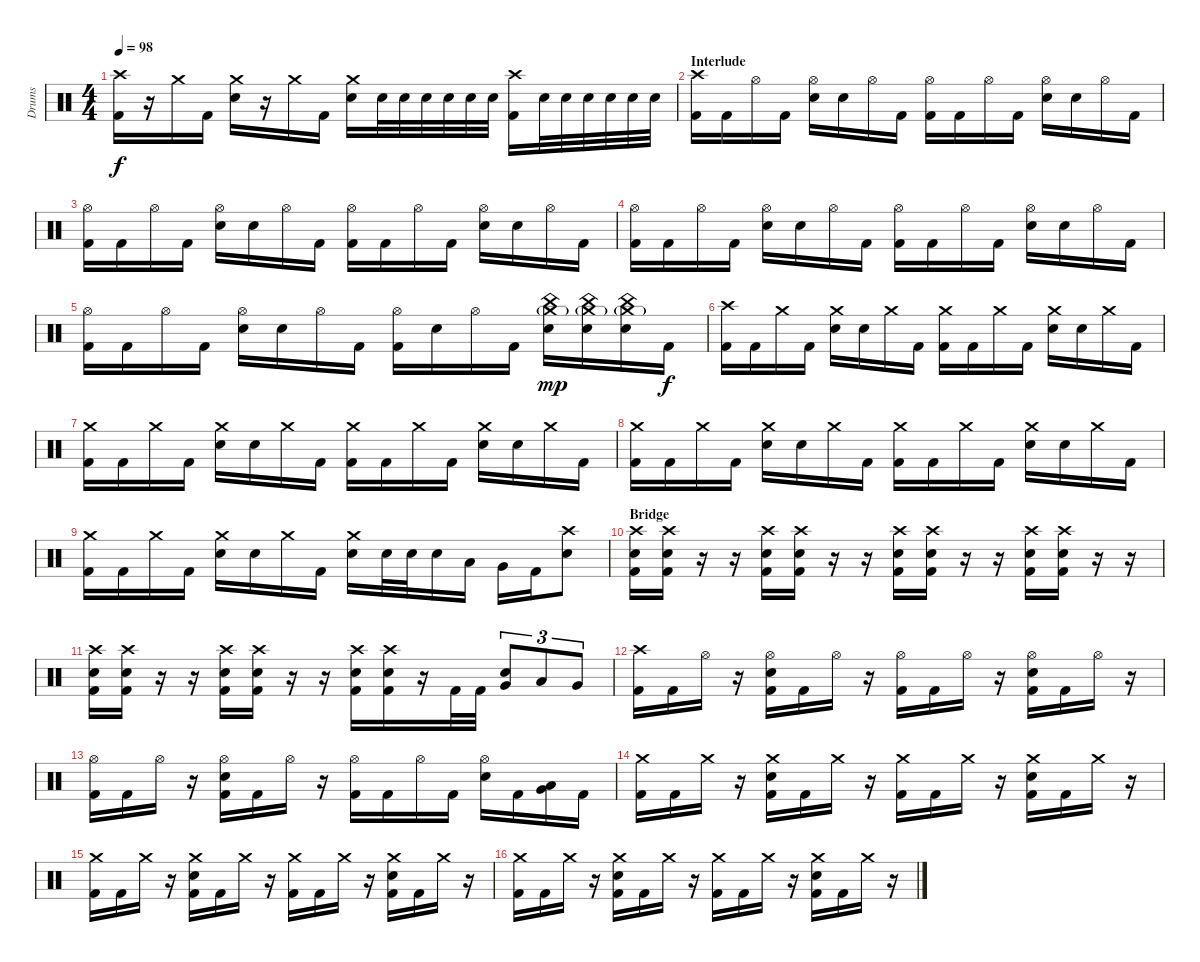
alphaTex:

\track ("Drums" "Drums") {instrument percussion}
\staff {score}
\articulation defaults
\ts (4 4)
\tempo 98
\clef neutral
\ks c
("Crash high (hit)" "Kick (hit) 2").16{dy f} r.16 "Crash medium (hit)".16 "Kick (hit) 2".16 ("Crash medium (hit)" "Snare (hit) 2").16 r.16 "Crash medium (hit)".16 "Kick (hit) 2".16 ("Crash medium (hit)" "Snare (hit) 2").16 "Snare (hit) 2".32 "Snare (hit) 2".32 "Snare (hit) 2".32 "Snare (hit) 2".32 "Snare (hit) 2".32 "Snare (hit) 2".32 ("Crash high (hit)" "Kick (hit) 2").16 "Snare (hit) 2".32 "Snare (hit) 2".32 "Snare (hit) 2".32 "Snare (hit) 2".32 "Snare (hit) 2".32 "Snare (hit) 2".32 |
\section ("" "Interlude")
("Crash high (hit)" "Kick (hit) 2").16 "Kick (hit) 2".16 "Hi-Hat (open)".16 "Kick (hit) 2".16 ("Hi-Hat (open)" "Snare (hit) 2").16 "Snare (hit) 2".16 "Hi-Hat (open)".16 "Kick (hit) 2".16 ("Hi-Hat (open)" "Kick (hit) 2").16 "Kick (hit) 2".16 "Hi-Hat (open)".16 "Kick (hit) 2".16 ("Hi-Hat (open)" "Snare (hit) 2").16 "Snare (hit) 2".16 "Hi-Hat (open)".16 "Kick (hit) 2".16 |
("Hi-Hat (open)" "Kick (hit) 2").16 "Kick (hit) 2".16 "Hi-Hat (open)".16 "Kick (hit) 2".16 ("Hi-Hat (open)" "Snare (hit) 2").16 "Snare (hit) 2".16 "Hi-Hat (open)".16 "Kick (hit) 2".16 ("Hi-Hat (open)" "Kick (hit) 2").16 "Kick (hit) 2".16 "Hi-Hat (open)".16 "Kick (hit) 2".16 ("Hi-Hat (open)" "Snare (hit) 2").16 "Snare (hit) 2".16 "Hi-Hat (open)".16 "Kick (hit) 2".16 |
("Hi-Hat (open)" "Kick (hit) 2").16 "Kick (hit) 2".16 "Hi-Hat (open)".16 "Kick (hit) 2".16 ("Hi-Hat (open)" "Snare (hit) 2").16 "Snare (hit) 2".16 "Hi-Hat (open)".16 "Kick (hit) 2".16 ("Hi-Hat (open)" "Kick (hit) 2").16 "Kick (hit) 2".16 "Hi-Hat (open)".16 "Kick (hit) 2".16 ("Hi-Hat (open)" "Snare (hit) 2").16 "Snare (hit) 2".16 "Hi-Hat (open)".16 "Kick (hit) 2".16 |
("Hi-Hat (open)" "Kick (hit) 2").16 "Kick (hit) 2".16 "Hi-Hat (open)".16 "Kick (hit) 2".16 ("Hi-Hat (open)" "Snare (hit) 2").16 "Snare (hit) 2".16 "Hi-Hat (open)".16 "Kick (hit) 2".16 ("Hi-Hat (open)" "Kick (hit) 2").16 "Snare (hit) 2".16 "Hi-Hat (open)".16 "Kick (hit) 2".16 ("Crash medium (hit)"{g} "China (hit)" "Snare (hit) 2").16{dy mp} ("Crash medium (hit)"{g} "China (hit)" "Snare (hit) 2").16 ("Crash medium (hit)"{g} "China (hit)" "Snare (hit) 2").16 "Kick (hit) 2".16{dy f} |
("Crash high (hit)" "Kick (hit) 2").16 "Kick (hit) 2".16 "Crash medium (hit)".16 "Kick (hit) 2".16 ("Crash medium (hit)" "Snare (hit) 2").16 "Snare (hit) 2".16 "Crash medium (hit)".16 "Kick (hit) 2".16 ("Crash medium (hit)" "Kick (hit) 2").16 "Kick (hit) 2".16 "Crash medium (hit)".16 "Kick (hit) 2".16 ("Crash medium (hit)" "Snare (hit) 2").16 "Snare (hit) 2".16 "Crash medium (hit)".16 "Kick (hit) 2".16 |
("Crash medium (hit)" "Kick (hit) 2").16 "Kick (hit) 2".16 "Crash medium (hit)".16 "Kick (hit) 2".16 ("Crash medium (hit)" "Snare (hit) 2").16 "Snare (hit) 2".16 "Crash medium (hit)".16 "Kick (hit) 2".16 ("Crash medium (hit)" "Kick (hit) 2").16 "Kick (hit) 2".16 "Crash medium (hit)".16 "Kick (hit) 2".16 ("Crash medium (hit)" "Snare (hit) 2").16 "Snare (hit) 2".16 "Crash medium (hit)".16 "Kick (hit) 2".16 |
("Crash medium (hit)" "Kick (hit) 2").16 "Kick (hit) 2".16 "Crash medium (hit)".16 "Kick (hit) 2".16 ("Crash medium (hit)" "Snare (hit) 2").16 "Snare (hit) 2".16 "Crash medium (hit)".16 "Kick (hit) 2".16 ("Crash medium (hit)" "Kick (hit) 2").16 "Kick (hit) 2".16 "Crash medium (hit)".16 "Kick (hit) 2".16 ("Crash medium (hit)" "Snare (hit) 2").16 "Snare (hit) 2".16 "Crash medium (hit)".16 "Kick (hit) 2".16 |
("Crash medium (hit)" "Kick (hit) 2").16 "Kick (hit) 2".16 "Crash medium (hit)".16 "Kick (hit) 2".16 ("Crash medium (hit)" "Snare (hit) 2").16 "Snare (hit) 2".16 "Crash medium (hit)".16 "Kick (hit) 2".16 ("Crash medium (hit)" "Snare (hit) 2").16 "Snare (hit) 2".32 "Snare (hit) 2".32 "Snare (hit) 2".16 "Low Tom (hit)".16 "Very Low Tom (hit)".16 "Kick (hit) 2".16 ("Crash high (hit)" "Snare (hit) 2").8 |
\section ("" "Bridge")
("Crash high (hit)" "Snare (hit) 2" "Kick (hit) 2").16 ("Crash high (hit)" "Snare (hit) 2" "Kick (hit) 2").16 r.16 r.16 ("Crash high (hit)" "Snare (hit) 2" "Kick (hit) 2").16 ("Crash high (hit)" "Snare (hit) 2" "Kick (hit) 2").16 r.16 r.16 ("Crash high (hit)" "Snare (hit) 2" "Kick (hit) 2").16 ("Crash high (hit)" "Snare (hit) 2" "Kick (hit) 2").16 r.16 r.16 ("Crash high (hit)" "Snare (hit) 2" "Kick (hit) 2").16 ("Crash high (hit)" "Snare (hit) 2" "Kick (hit) 2").16 r.16 r.16 |
("Crash high (hit)" "Snare (hit) 2" "Kick (hit) 2").16 ("Crash high (hit)" "Snare (hit) 2" "Kick (hit) 2").16 r.16 r.16 ("Crash high (hit)" "Snare (hit) 2" "Kick (hit) 2").16 ("Crash high (hit)" "Snare (hit) 2" "Kick (hit) 2").16 r.16 r.16 ("Crash high (hit)" "Snare (hit) 2" "Kick (hit) 2").16 ("Crash high (hit)" "Snare (hit) 2" "Kick (hit) 2").16 r.16 "Kick (hit) 2".32 "Kick (hit) 2".32 ("Snare (hit) 2" "Very Low Tom (hit)").8{tu (3 2)} "Low Tom (hit)".8{tu (3 2)} "Very Low Tom (hit)".8{tu (3 2)} |
("Crash high (hit)" "Kick (hit) 2").16 "Kick (hit) 2".16 "Hi-Hat (open)".16 r.16 ("Hi-Hat (open)" "Snare (hit) 2" "Kick (hit) 2").16 "Kick (hit) 2".16 "Hi-Hat (open)".16 r.16 ("Hi-Hat (open)" "Kick (hit) 2").16 "Kick (hit) 2".16 "Hi-Hat (open)".16 r.16 ("Hi-Hat (open)" "Snare (hit) 2" "Kick (hit) 2").16 "Kick (hit) 2".16 "Hi-Hat (open)".16 r.16 |
("Hi-Hat (open)" "Kick (hit) 2").16 "Kick (hit) 2".16 "Hi-Hat (open)".16 r.16 ("Hi-Hat (open)" "Snare (hit) 2" "Kick (hit) 2").16 "Kick (hit) 2".16 "Hi-Hat (open)".16 r.16 ("Hi-Hat (open)" "Kick (hit) 2").16 "Kick (hit) 2".16 "Hi-Hat (open)".16 "Kick (hit) 2".16 ("Hi-Hat (open)" "Snare (hit) 2").16 "Kick (hit) 2".16 ("Low Tom (hit)" "Very Low Tom (hit)").16 "Kick (hit) 2".16 |
("Crash medium (hit)" "Kick (hit) 2").16 "Kick (hit) 2".16 "Crash medium (hit)".16 r.16 ("Crash medium (hit)" "Snare (hit) 2" "Kick (hit) 2").16 "Kick (hit) 2".16 "Crash medium (hit)".16 r.16 ("Crash medium (hit)" "Kick (hit) 2").16 "Kick (hit) 2".16 "Crash medium (hit)".16 r.16 ("Crash medium (hit)" "Snare (hit) 2" "Kick (hit) 2").16 "Kick (hit) 2".16 "Crash medium (hit)".16 r.16 |
("Crash medium (hit)" "Kick (hit) 2").16 "Kick (hit) 2".16 "Crash medium (hit)".16 r.16 ("Crash medium (hit)" "Snare (hit) 2" "Kick (hit) 2").16 "Kick (hit) 2".16 "Crash medium (hit)".16 r.16 ("Crash medium (hit)" "Kick (hit) 2").16 "Kick (hit) 2".16 "Crash medium (hit)".16 r.16 ("Crash medium (hit)" "Snare (hit) 2" "Kick (hit) 2").16 "Kick (hit) 2".16 "Crash medium (hit)".16 r.16 |
("Crash medium (hit)" "Kick (hit) 2").16 "Kick (hit) 2".16 "Crash medium (hit)".16 r.16 ("Crash medium (hit)" "Snare (hit) 2" "Kick (hit) 2").16 "Kick (hit) 2".16 "Crash medium (hit)".16 r.16 ("Crash medium (hit)" "Kick (hit) 2").16 "Kick (hit) 2".16 "Crash medium (hit)".16 r.16 ("Crash medium (hit)" "Snare (hit) 2" "Kick (hit) 2").16 "Kick (hit) 2".16 "Crash medium (hit)".16 r.16
